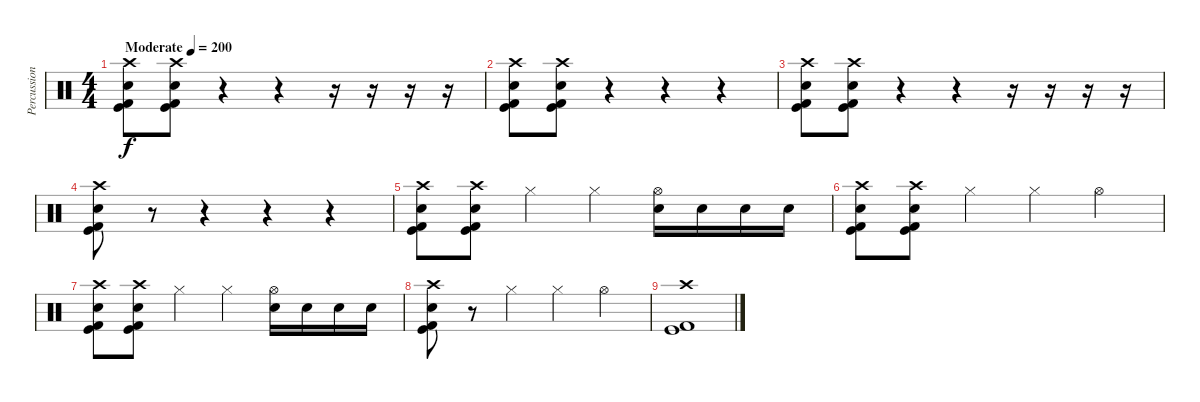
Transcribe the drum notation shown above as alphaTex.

\track ("Percussion" "Percussion") {instrument percussion}
\staff {score}
\articulation defaults
\ts (4 4)
\tempo (200 "Moderate")
\clef neutral
\ks c
("Electric Snare (hit)" "Kick (hit)" "Kick (hit) 2" "Crash high (hit)").8{dy f} ("Electric Snare (hit)" "Kick (hit)" "Kick (hit) 2" "Crash high (hit)").8 r.4 r.4 r.16 r.16 r.16 r.16 |
("Electric Snare (hit)" "Kick (hit)" "Kick (hit) 2" "Crash high (hit)").8 ("Electric Snare (hit)" "Kick (hit)" "Kick (hit) 2" "Crash high (hit)").8 r.4 r.4 r.4 |
("Electric Snare (hit)" "Kick (hit)" "Kick (hit) 2" "Crash high (hit)").8 ("Electric Snare (hit)" "Kick (hit)" "Kick (hit) 2" "Crash high (hit)").8 r.4 r.4 r.16 r.16 r.16 r.16 |
("Electric Snare (hit)" "Kick (hit)" "Kick (hit) 2" "Crash high (hit)").8 r.8 r.4 r.4 r.4 |
("Electric Snare (hit)" "Kick (hit)" "Kick (hit) 2" "Crash high (hit)").8 ("Electric Snare (hit)" "Kick (hit)" "Kick (hit) 2" "Crash high (hit)").8 "Hi-Hat (closed)".4 "Hi-Hat (closed)".4 ("Electric Snare (hit)" "Hi-Hat (open)").16 "Electric Snare (hit)".16 "Electric Snare (hit)".16 "Electric Snare (hit)".16 |
("Electric Snare (hit)" "Kick (hit)" "Kick (hit) 2" "Crash high (hit)").8 ("Electric Snare (hit)" "Kick (hit)" "Kick (hit) 2" "Crash high (hit)").8 "Hi-Hat (closed)".4 "Hi-Hat (closed)".4 "Hi-Hat (open)".4 |
("Electric Snare (hit)" "Kick (hit)" "Kick (hit) 2" "Crash high (hit)").8 ("Electric Snare (hit)" "Kick (hit)" "Kick (hit) 2" "Crash high (hit)").8 "Hi-Hat (closed)".4 "Hi-Hat (closed)".4 ("Electric Snare (hit)" "Hi-Hat (open)").16 "Electric Snare (hit)".16 "Electric Snare (hit)".16 "Electric Snare (hit)".16 |
("Electric Snare (hit)" "Kick (hit)" "Kick (hit) 2" "Crash high (hit)").8 r.8 "Hi-Hat (closed)".4 "Hi-Hat (closed)".4 "Hi-Hat (open)".4 |
("Crash high (hit)" "Kick (hit) 2" "Kick (hit)").1
